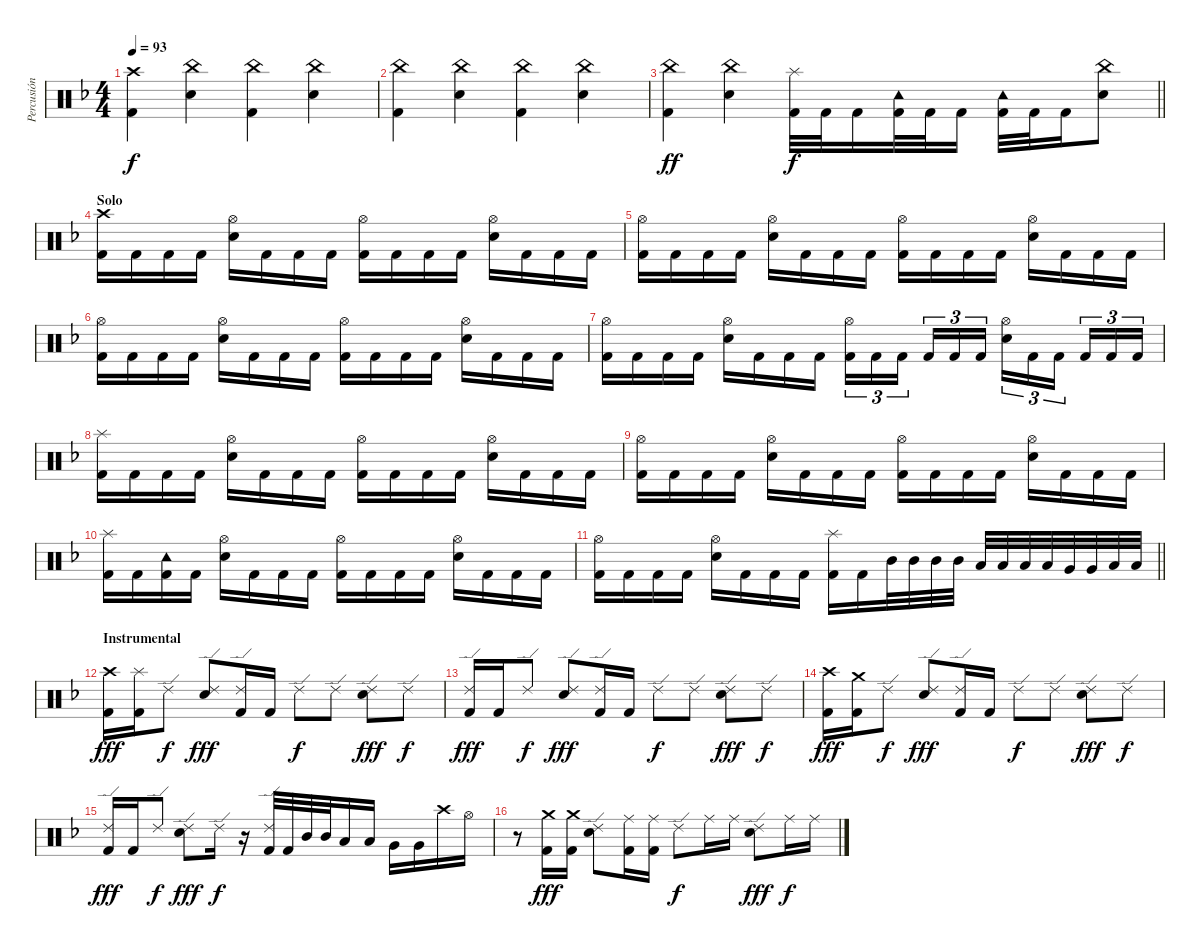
\track ("Percusión" "Percusión") {instrument percussion}
\staff {score}
\articulation defaults
\ts (4 4)
\tempo 93
\clef neutral
\ks dminor
("Crash high (hit)" "Kick (hit) 2").4{dy f} ("China (hit)" "Snare (hit) 2").4 ("China (hit)" "Kick (hit) 2").4 ("China (hit)" "Snare (hit) 2").4 |
("China (hit)" "Kick (hit) 2").4 ("China (hit)" "Snare (hit) 2").4 ("China (hit)" "Kick (hit) 2").4 ("China (hit)" "Snare (hit) 2").4 |
\barLineRight lightlight
("China (hit)" "Kick (hit) 2").4{dy ff} ("China (hit)" "Snare (hit) 2").4 ("Splash (hit)" "Kick (hit) 2").32{dy f} "Kick (hit) 2".32 "Kick (hit) 2".16 ("Tambourine (hit)" "Kick (hit) 2").32 "Kick (hit) 2".32 "Kick (hit) 2".16 ("Tambourine (hit)" "Kick (hit) 2").32 "Kick (hit) 2".32 "Kick (hit) 2".16 ("China (hit)" "Snare (hit) 2").8 |
\section ("" "Solo")
("Crash high (hit)" "Kick (hit) 2").16 "Kick (hit) 2".16 "Kick (hit) 2".16 "Kick (hit) 2".16 ("Hi-Hat (open)" "Snare (hit) 2").16 "Kick (hit) 2".16 "Kick (hit) 2".16 "Kick (hit) 2".16 ("Hi-Hat (open)" "Kick (hit) 2").16 "Kick (hit) 2".16 "Kick (hit) 2".16 "Kick (hit) 2".16 ("Hi-Hat (open)" "Snare (hit) 2").16 "Kick (hit) 2".16 "Kick (hit) 2".16 "Kick (hit) 2".16 |
("Hi-Hat (open)" "Kick (hit) 2").16 "Kick (hit) 2".16 "Kick (hit) 2".16 "Kick (hit) 2".16 ("Hi-Hat (open)" "Snare (hit) 2").16 "Kick (hit) 2".16 "Kick (hit) 2".16 "Kick (hit) 2".16 ("Hi-Hat (open)" "Kick (hit) 2").16 "Kick (hit) 2".16 "Kick (hit) 2".16 "Kick (hit) 2".16 ("Hi-Hat (open)" "Snare (hit) 2").16 "Kick (hit) 2".16 "Kick (hit) 2".16 "Kick (hit) 2".16 |
("Hi-Hat (open)" "Kick (hit) 2").16 "Kick (hit) 2".16 "Kick (hit) 2".16 "Kick (hit) 2".16 ("Hi-Hat (open)" "Snare (hit) 2").16 "Kick (hit) 2".16 "Kick (hit) 2".16 "Kick (hit) 2".16 ("Hi-Hat (open)" "Kick (hit) 2").16 "Kick (hit) 2".16 "Kick (hit) 2".16 "Kick (hit) 2".16 ("Hi-Hat (open)" "Snare (hit) 2").16 "Kick (hit) 2".16 "Kick (hit) 2".16 "Kick (hit) 2".16 |
("Hi-Hat (open)" "Kick (hit) 2").16 "Kick (hit) 2".16 "Kick (hit) 2".16 "Kick (hit) 2".16 ("Hi-Hat (open)" "Snare (hit) 2").16 "Kick (hit) 2".16 "Kick (hit) 2".16 "Kick (hit) 2".16 ("Hi-Hat (open)" "Kick (hit) 2").16{tu (3 2)} "Kick (hit) 2".16{tu (3 2)} "Kick (hit) 2".16{tu (3 2) beam splitsecondary} "Kick (hit) 2".16{tu (3 2)} "Kick (hit) 2".16{tu (3 2)} "Kick (hit) 2".16{tu (3 2)} ("Hi-Hat (open)" "Snare (hit) 2").16{tu (3 2)} "Kick (hit) 2".16{tu (3 2)} "Kick (hit) 2".16{tu (3 2) beam splitsecondary} "Kick (hit) 2".16{tu (3 2)} "Kick (hit) 2".16{tu (3 2)} "Kick (hit) 2".16{tu (3 2)} |
("Splash (hit)" "Kick (hit) 2").16 "Kick (hit) 2".16 "Kick (hit) 2".16 "Kick (hit) 2".16 ("Hi-Hat (open)" "Snare (hit) 2").16 "Kick (hit) 2".16 "Kick (hit) 2".16 "Kick (hit) 2".16 ("Hi-Hat (open)" "Kick (hit) 2").16 "Kick (hit) 2".16 "Kick (hit) 2".16 "Kick (hit) 2".16 ("Hi-Hat (open)" "Snare (hit) 2").16 "Kick (hit) 2".16 "Kick (hit) 2".16 "Kick (hit) 2".16 |
("Hi-Hat (open)" "Kick (hit) 2").16 "Kick (hit) 2".16 "Kick (hit) 2".16 "Kick (hit) 2".16 ("Hi-Hat (open)" "Snare (hit) 2").16 "Kick (hit) 2".16 "Kick (hit) 2".16 "Kick (hit) 2".16 ("Hi-Hat (open)" "Kick (hit) 2").16 "Kick (hit) 2".16 "Kick (hit) 2".16 "Kick (hit) 2".16 ("Hi-Hat (open)" "Snare (hit) 2").16 "Kick (hit) 2".16 "Kick (hit) 2".16 "Kick (hit) 2".16 |
("Splash (hit)" "Kick (hit) 2").16 "Kick (hit) 2".16 ("Tambourine (hit)" "Kick (hit) 2").16 "Kick (hit) 2".16 ("Hi-Hat (open)" "Snare (hit) 2").16 "Kick (hit) 2".16 "Kick (hit) 2".16 "Kick (hit) 2".16 ("Hi-Hat (open)" "Kick (hit) 2").16 "Kick (hit) 2".16 "Kick (hit) 2".16 "Kick (hit) 2".16 ("Hi-Hat (open)" "Snare (hit) 2").16 "Kick (hit) 2".16 "Kick (hit) 2".16 "Kick (hit) 2".16 |
\barLineRight lightlight
("Hi-Hat (open)" "Kick (hit) 2").16 "Kick (hit) 2".16 "Kick (hit) 2".16 "Kick (hit) 2".16 ("Hi-Hat (open)" "Snare (hit) 2").16 "Kick (hit) 2".16 "Kick (hit) 2".16 "Kick (hit) 2".16 ("Splash (hit)" "Kick (hit) 2").16 "Kick (hit) 2".16 "Mid Tom (hit)".32 "Mid Tom (hit)".32 "Mid Tom (hit)".32 "Mid Tom (hit)".32 "Low Tom (hit)".32 "Low Tom (hit)".32 "Low Tom (hit)".32 "Low Tom (hit)".32 "Very Low Tom (hit)".32 "Very Low Tom (hit)".32 "Low Floor Tom (hit)".32 "Low Floor Tom (hit)".32 |
\section ("" "Instrumental")
("Crash high (hit)" "Kick (hit) 2").16{dy fff} ("Splash (hit)" "Kick (hit) 2").16 "Ride (edge) 2".8{dy f} ("Ride (edge) 2" "Snare (hit) 2").8{dy fff} ("Ride (edge) 2" "Kick (hit) 2").16 "Kick (hit) 2".16 "Ride (edge) 2".8{dy f} "Ride (edge) 2".8 ("Ride (edge) 2" "Snare (hit) 2").8{dy fff} "Ride (edge) 2".8{dy f} |
("Ride (edge) 2" "Kick (hit) 2").16{dy fff} "Kick (hit) 2".16 "Ride (edge) 2".8{dy f} ("Ride (edge) 2" "Snare (hit) 2").8{dy fff} ("Ride (edge) 2" "Kick (hit) 2").16 "Kick (hit) 2".16 "Ride (edge) 2".8{dy f} "Ride (edge) 2".8 ("Ride (edge) 2" "Snare (hit) 2").8{dy fff} "Ride (edge) 2".8{dy f} |
("Crash high (hit)" "Kick (hit) 2").16{dy fff} ("Crash medium (hit)" "Kick (hit) 2").16 "Ride (edge) 2".8{dy f} ("Ride (edge) 2" "Snare (hit) 2").8{dy fff} ("Ride (edge) 2" "Kick (hit) 2").16 "Kick (hit) 2".16 "Ride (edge) 2".8{dy f} "Ride (edge) 2".8 ("Ride (edge) 2" "Snare (hit) 2").8{dy fff} "Ride (edge) 2".8{dy f} |
("Ride (edge) 2" "Kick (hit) 2").16{dy fff} "Kick (hit) 2".16 "Ride (edge) 2".8{dy f} ("Ride (edge) 2" "Snare (hit) 2").8{dy fff} "Ride (edge) 2".16{dy f} r.16 ("Ride (edge) 2" "Kick (hit) 2").32 "Kick (hit) 2".32 "Mid Tom (hit)".32 "Mid Tom (hit)".32 "Low Tom (hit)".16 "Low Tom (hit)".16 "Very Low Tom (hit)".16 "Very Low Tom (hit)".16 "Crash high (hit)".16 "Hi-Hat (open)".16 |
r.8 ("Crash medium (hit)" "Kick (hit) 2").16{dy fff} ("Crash medium (hit)" "Kick (hit) 2").16 ("Ride (edge) 2" "Snare (hit) 2").8 ("Ride (middle)" "Kick (hit) 2").16 ("Ride (middle)" "Kick (hit) 2").16 "Ride (edge) 2".8{dy f} "Ride (middle)".16 "Ride (middle)".16 ("Ride (edge) 2" "Snare (hit) 2").8{dy fff} "Ride (middle)".16{dy f} "Ride (middle)".16
